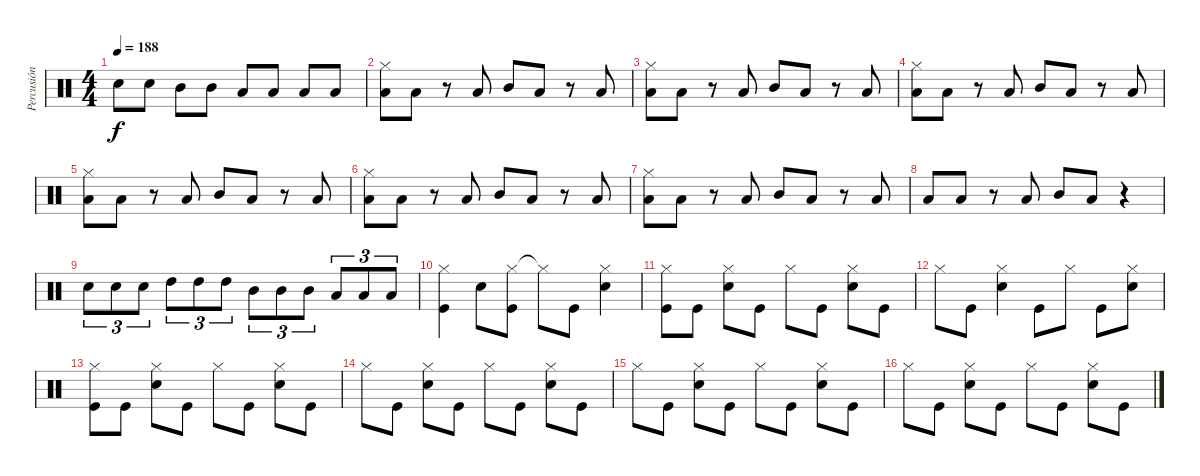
\track ("Percusión" "Percusión") {instrument percussion}
\staff {score}
\articulation defaults
\ts (4 4)
\tempo 188
\clef neutral
\ks c "Snare (hit) 2".8{dy f} "Snare (hit) 2".8 "Mid Tom (hit)".8 "Mid Tom (hit)".8 "Low Tom (hit)".8 "Low Tom (hit)".8 "Low Tom (hit)".8 "Low Tom (hit)".8
|
("Hi-Hat (closed)" "Low Tom (hit)").8 "Low Tom (hit)".8 r.8 "Low Tom (hit)".8 "Mid Tom (hit)".8 "Low Tom (hit)".8 r.8 "Low Tom (hit)".8 |
("Hi-Hat (closed)" "Low Tom (hit)").8 "Low Tom (hit)".8 r.8 "Low Tom (hit)".8 "Mid Tom (hit)".8 "Low Tom (hit)".8 r.8 "Low Tom (hit)".8 |
("Hi-Hat (closed)" "Low Tom (hit)").8 "Low Tom (hit)".8 r.8 "Low Tom (hit)".8 "Mid Tom (hit)".8 "Low Tom (hit)".8 r.8 "Low Tom (hit)".8 |
("Hi-Hat (closed)" "Low Tom (hit)").8 "Low Tom (hit)".8 r.8 "Low Tom (hit)".8 "Mid Tom (hit)".8 "Low Tom (hit)".8 r.8 "Low Tom (hit)".8 |
("Hi-Hat (closed)" "Low Tom (hit)").8 "Low Tom (hit)".8 r.8 "Low Tom (hit)".8 "Mid Tom (hit)".8 "Low Tom (hit)".8 r.8 "Low Tom (hit)".8 |
("Hi-Hat (closed)" "Low Tom (hit)").8 "Low Tom (hit)".8 r.8 "Low Tom (hit)".8 "Mid Tom (hit)".8 "Low Tom (hit)".8 r.8 "Low Tom (hit)".8 |
"Low Tom (hit)".8 "Low Tom (hit)".8 r.8 "Low Tom (hit)".8 "Mid Tom (hit)".8 "Low Tom (hit)".8 r.4 |
"Snare (hit) 2".8{tu (3 2)} "Snare (hit) 2".8{tu (3 2)} "Snare (hit) 2".8{tu (3 2)} "High Tom (hit)".8{tu (3 2)} "High Tom (hit)".8{tu (3 2)} "High Tom (hit)".8{tu (3 2)} "Mid Tom (hit)".8{tu (3 2)} "Mid Tom (hit)".8{tu (3 2)} "Mid Tom (hit)".8{tu (3 2)} "Low Tom (hit)".8{tu (3 2)} "Low Tom (hit)".8{tu (3 2)} "Low Tom (hit)".8{tu (3 2)} |
("Hi-Hat (closed)" "Kick (hit)").4 "Snare (hit) 2".8 ("Hi-Hat (closed)" "Kick (hit)").8 "Hi-Hat (closed)"{t}.8 "Kick (hit)".8 ("Hi-Hat (closed)" "Snare (hit) 2").4 |
("Hi-Hat (closed)" "Kick (hit)").8 "Kick (hit)".8 ("Hi-Hat (closed)" "Snare (hit) 2").8 "Kick (hit)".8 "Hi-Hat (closed)".8 "Kick (hit)".8 ("Hi-Hat (closed)" "Snare (hit) 2").8 "Kick (hit)".8 |
"Hi-Hat (closed)".8 "Kick (hit)".8 ("Hi-Hat (closed)" "Snare (hit) 2").4 "Kick (hit)".8 "Hi-Hat (closed)".8 "Kick (hit)".8 ("Hi-Hat (closed)" "Snare (hit) 2").8 |
("Hi-Hat (closed)" "Kick (hit)").8 "Kick (hit)".8 ("Hi-Hat (closed)" "Snare (hit) 2").8 "Kick (hit)".8 "Hi-Hat (closed)".8 "Kick (hit)".8 ("Hi-Hat (closed)" "Snare (hit) 2").8 "Kick (hit)".8 |
"Hi-Hat (closed)".8 "Kick (hit)".8 ("Hi-Hat (closed)" "Snare (hit) 2").8 "Kick (hit)".8 "Hi-Hat (closed)".8 "Kick (hit)".8 ("Hi-Hat (closed)" "Snare (hit) 2").8 "Kick (hit)".8 |
"Hi-Hat (closed)".8 "Kick (hit)".8 ("Hi-Hat (closed)" "Snare (hit) 2").8 "Kick (hit)".8 "Hi-Hat (closed)".8 "Kick (hit)".8 ("Hi-Hat (closed)" "Snare (hit) 2").8 "Kick (hit)".8 |
"Hi-Hat (closed)".8 "Kick (hit)".8 ("Hi-Hat (closed)" "Snare (hit) 2").8 "Kick (hit)".8 "Hi-Hat (closed)".8 "Kick (hit)".8 ("Hi-Hat (closed)" "Snare (hit) 2").8 "Kick (hit)".8
